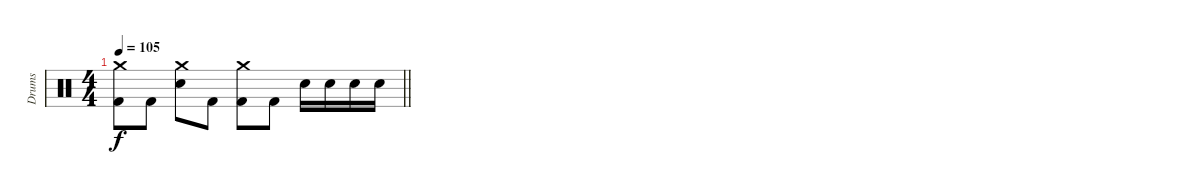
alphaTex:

\track ("Drums" "Drums") {instrument percussion}
\staff {score}
\articulation defaults
\ts (4 4)
\tempo 105
\clef neutral
\barLineRight lightlight
\ks c
("Crash medium (hit)" "Kick (hit) 2").8{dy f} "Kick (hit) 2".8 ("Crash medium (hit)" "Snare (hit) 2").8 "Kick (hit) 2".8 ("Crash medium (hit)" "Kick (hit) 2").8 "Kick (hit) 2".8 "Snare (hit) 2".16 "Snare (hit) 2".16 "Snare (hit) 2".16 "Snare (hit) 2".16
